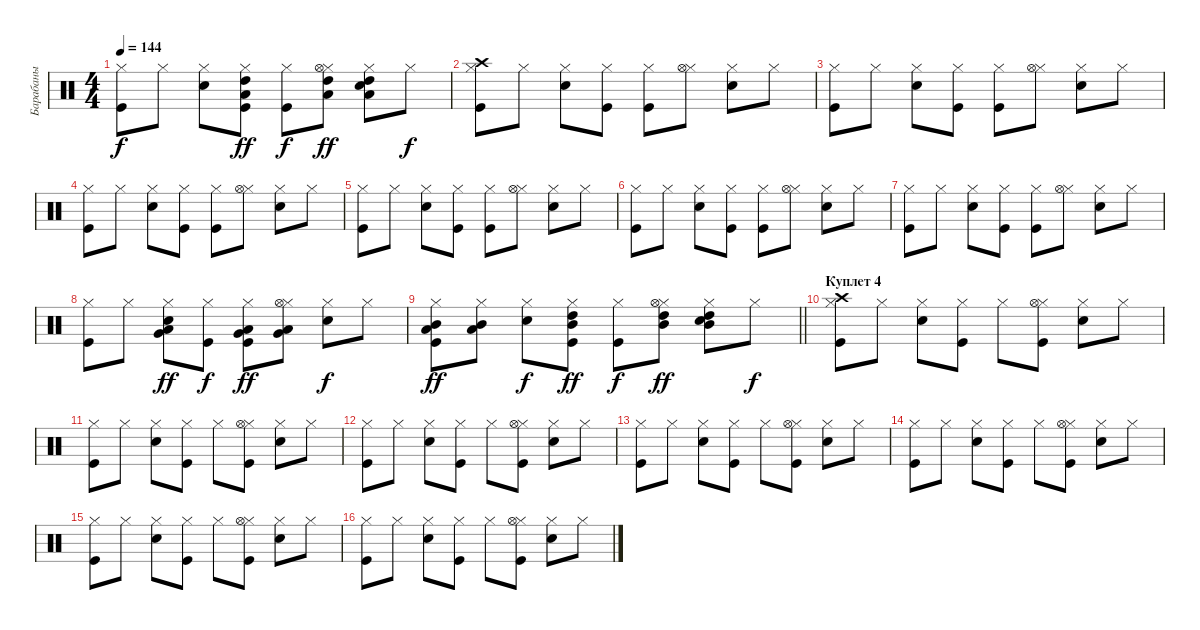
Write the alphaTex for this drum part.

\track ("Барабаны" "Барабаны") {instrument percussion}
\staff {score}
\articulation defaults
\ts (4 4)
\tempo 144
\clef neutral
\ks c
("Kick (hit)" "Hi-Hat (closed)").8{dy f} "Hi-Hat (closed)".8 ("Snare (hit) 2" "Hi-Hat (closed)").8 ("Kick (hit)" "Hi-Hat (closed)" "Low Floor Tom (hit)" "High Tom (hit)").8{dy ff} ("Kick (hit)" "Hi-Hat (closed)").8{dy f} ("Hi-Hat (closed)" "Low Floor Tom (hit)" "High Tom (hit)" "Hi-Hat (open)").8{dy ff} ("Snare (hit) 2" "Hi-Hat (closed)" "Low Floor Tom (hit)" "High Tom (hit)").8 "Hi-Hat (closed)".8{dy f} |
("Kick (hit)" "Hi-Hat (closed)" "Crash high (hit)").8 "Hi-Hat (closed)".8 ("Snare (hit) 2" "Hi-Hat (closed)").8 ("Kick (hit)" "Hi-Hat (closed)").8 ("Kick (hit)" "Hi-Hat (closed)").8 ("Hi-Hat (closed)" "Hi-Hat (open)").8 ("Snare (hit) 2" "Hi-Hat (closed)").8 "Hi-Hat (closed)".8 |
("Kick (hit)" "Hi-Hat (closed)").8 "Hi-Hat (closed)".8 ("Snare (hit) 2" "Hi-Hat (closed)").8 ("Kick (hit)" "Hi-Hat (closed)").8 ("Kick (hit)" "Hi-Hat (closed)").8 ("Hi-Hat (closed)" "Hi-Hat (open)").8 ("Snare (hit) 2" "Hi-Hat (closed)").8 "Hi-Hat (closed)".8 |
("Kick (hit)" "Hi-Hat (closed)").8 "Hi-Hat (closed)".8 ("Snare (hit) 2" "Hi-Hat (closed)").8 ("Kick (hit)" "Hi-Hat (closed)").8 ("Kick (hit)" "Hi-Hat (closed)").8 ("Hi-Hat (closed)" "Hi-Hat (open)").8 ("Snare (hit) 2" "Hi-Hat (closed)").8 "Hi-Hat (closed)".8 |
("Kick (hit)" "Hi-Hat (closed)").8 "Hi-Hat (closed)".8 ("Snare (hit) 2" "Hi-Hat (closed)").8 ("Kick (hit)" "Hi-Hat (closed)").8 ("Kick (hit)" "Hi-Hat (closed)").8 ("Hi-Hat (closed)" "Hi-Hat (open)").8 ("Snare (hit) 2" "Hi-Hat (closed)").8 "Hi-Hat (closed)".8 |
("Kick (hit)" "Hi-Hat (closed)").8 "Hi-Hat (closed)".8 ("Snare (hit) 2" "Hi-Hat (closed)").8 ("Kick (hit)" "Hi-Hat (closed)").8 ("Kick (hit)" "Hi-Hat (closed)").8 ("Hi-Hat (closed)" "Hi-Hat (open)").8 ("Snare (hit) 2" "Hi-Hat (closed)").8 "Hi-Hat (closed)".8 |
("Kick (hit)" "Hi-Hat (closed)").8 "Hi-Hat (closed)".8 ("Snare (hit) 2" "Hi-Hat (closed)").8 ("Kick (hit)" "Hi-Hat (closed)").8 ("Kick (hit)" "Hi-Hat (closed)").8 ("Hi-Hat (closed)" "Hi-Hat (open)").8 ("Snare (hit) 2" "Hi-Hat (closed)").8 "Hi-Hat (closed)".8 |
("Kick (hit)" "Hi-Hat (closed)").8 "Hi-Hat (closed)".8 ("Snare (hit) 2" "Hi-Hat (closed)" "Low Floor Tom (hit)" "Very Low Tom (hit)").8{dy ff} ("Kick (hit)" "Hi-Hat (closed)").8{dy f} ("Kick (hit)" "Hi-Hat (closed)" "Low Floor Tom (hit)" "Very Low Tom (hit)").8{dy ff} ("Hi-Hat (closed)" "Low Floor Tom (hit)" "Very Low Tom (hit)" "Hi-Hat (open)").8 ("Snare (hit) 2" "Hi-Hat (closed)").8{dy f} "Hi-Hat (closed)".8 |
\barLineRight lightlight
("Kick (hit)" "Hi-Hat (closed)" "Low Tom (hit)" "Mid Tom (hit)").8{dy ff} ("Hi-Hat (closed)" "Low Tom (hit)" "Mid Tom (hit)").8 ("Snare (hit) 2" "Hi-Hat (closed)").8{dy f} ("Kick (hit)" "Hi-Hat (closed)" "Mid Tom (hit)" "High Tom (hit)").8{dy ff} ("Kick (hit)" "Hi-Hat (closed)").8{dy f} ("Hi-Hat (closed)" "Mid Tom (hit)" "High Tom (hit)" "Hi-Hat (open)").8{dy ff} ("Snare (hit) 2" "Hi-Hat (closed)" "Mid Tom (hit)" "High Tom (hit)").8 "Hi-Hat (closed)".8{dy f} |
\section ("" "Куплет 4")
("Kick (hit)" "Hi-Hat (closed)" "Crash high (hit)").8 "Hi-Hat (closed)".8 ("Snare (hit) 2" "Hi-Hat (closed)").8 ("Kick (hit)" "Hi-Hat (closed)").8 "Hi-Hat (closed)".8 ("Kick (hit)" "Hi-Hat (closed)" "Hi-Hat (open)").8 ("Snare (hit) 2" "Hi-Hat (closed)").8 "Hi-Hat (closed)".8 |
("Kick (hit)" "Hi-Hat (closed)").8 "Hi-Hat (closed)".8 ("Snare (hit) 2" "Hi-Hat (closed)").8 ("Kick (hit)" "Hi-Hat (closed)").8 "Hi-Hat (closed)".8 ("Kick (hit)" "Hi-Hat (closed)" "Hi-Hat (open)").8 ("Snare (hit) 2" "Hi-Hat (closed)").8 "Hi-Hat (closed)".8 |
("Kick (hit)" "Hi-Hat (closed)").8 "Hi-Hat (closed)".8 ("Snare (hit) 2" "Hi-Hat (closed)").8 ("Kick (hit)" "Hi-Hat (closed)").8 "Hi-Hat (closed)".8 ("Kick (hit)" "Hi-Hat (closed)" "Hi-Hat (open)").8 ("Snare (hit) 2" "Hi-Hat (closed)").8 "Hi-Hat (closed)".8 |
("Kick (hit)" "Hi-Hat (closed)").8 "Hi-Hat (closed)".8 ("Snare (hit) 2" "Hi-Hat (closed)").8 ("Kick (hit)" "Hi-Hat (closed)").8 "Hi-Hat (closed)".8 ("Kick (hit)" "Hi-Hat (closed)" "Hi-Hat (open)").8 ("Snare (hit) 2" "Hi-Hat (closed)").8 "Hi-Hat (closed)".8 |
("Kick (hit)" "Hi-Hat (closed)").8 "Hi-Hat (closed)".8 ("Snare (hit) 2" "Hi-Hat (closed)").8 ("Kick (hit)" "Hi-Hat (closed)").8 "Hi-Hat (closed)".8 ("Kick (hit)" "Hi-Hat (closed)" "Hi-Hat (open)").8 ("Snare (hit) 2" "Hi-Hat (closed)").8 "Hi-Hat (closed)".8 |
("Kick (hit)" "Hi-Hat (closed)").8 "Hi-Hat (closed)".8 ("Snare (hit) 2" "Hi-Hat (closed)").8 ("Kick (hit)" "Hi-Hat (closed)").8 "Hi-Hat (closed)".8 ("Kick (hit)" "Hi-Hat (closed)" "Hi-Hat (open)").8 ("Snare (hit) 2" "Hi-Hat (closed)").8 "Hi-Hat (closed)".8 |
("Kick (hit)" "Hi-Hat (closed)").8 "Hi-Hat (closed)".8 ("Snare (hit) 2" "Hi-Hat (closed)").8 ("Kick (hit)" "Hi-Hat (closed)").8 "Hi-Hat (closed)".8 ("Kick (hit)" "Hi-Hat (closed)" "Hi-Hat (open)").8 ("Snare (hit) 2" "Hi-Hat (closed)").8 "Hi-Hat (closed)".8
